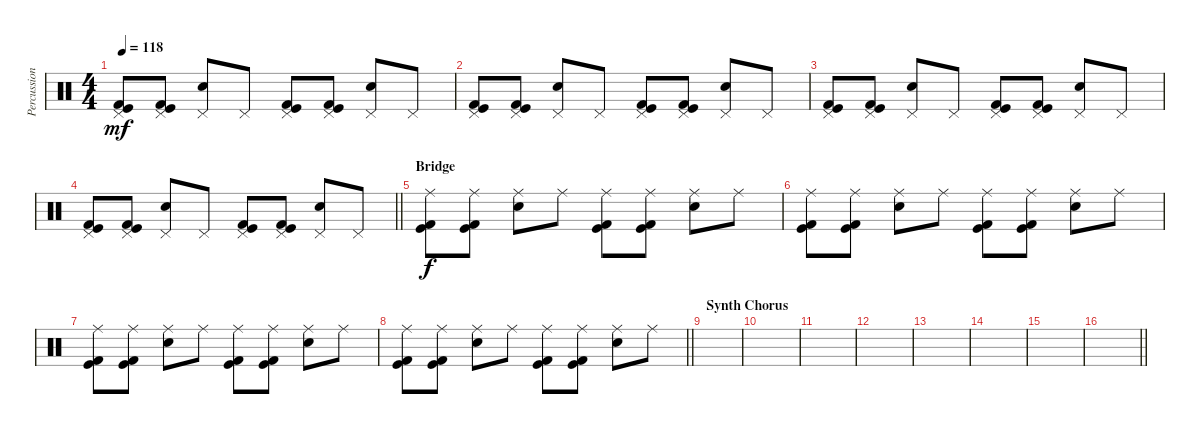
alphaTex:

\track ("Percussion" "Percussion") {instrument percussion}
\staff {score}
\articulation defaults
\ts (4 4)
\tempo 118
\clef neutral
\ks c
("Pedal Hi-Hat (hit)" "Kick (hit) 2" "Kick (hit)").8{dy mf} ("Pedal Hi-Hat (hit)" "Kick (hit) 2" "Kick (hit)").8 ("Pedal Hi-Hat (hit)" "Electric Snare (hit)").8 "Pedal Hi-Hat (hit)".8 ("Pedal Hi-Hat (hit)" "Kick (hit) 2" "Kick (hit)").8 ("Pedal Hi-Hat (hit)" "Kick (hit) 2" "Kick (hit)").8 ("Pedal Hi-Hat (hit)" "Electric Snare (hit)").8 "Pedal Hi-Hat (hit)".8 |
("Pedal Hi-Hat (hit)" "Kick (hit) 2" "Kick (hit)").8 ("Pedal Hi-Hat (hit)" "Kick (hit) 2" "Kick (hit)").8 ("Pedal Hi-Hat (hit)" "Electric Snare (hit)").8 "Pedal Hi-Hat (hit)".8 ("Pedal Hi-Hat (hit)" "Kick (hit) 2" "Kick (hit)").8 ("Pedal Hi-Hat (hit)" "Kick (hit) 2" "Kick (hit)").8 ("Pedal Hi-Hat (hit)" "Electric Snare (hit)").8 "Pedal Hi-Hat (hit)".8 |
("Pedal Hi-Hat (hit)" "Kick (hit) 2" "Kick (hit)").8 ("Pedal Hi-Hat (hit)" "Kick (hit) 2" "Kick (hit)").8 ("Pedal Hi-Hat (hit)" "Electric Snare (hit)").8 "Pedal Hi-Hat (hit)".8 ("Pedal Hi-Hat (hit)" "Kick (hit) 2" "Kick (hit)").8 ("Pedal Hi-Hat (hit)" "Kick (hit) 2" "Kick (hit)").8 ("Pedal Hi-Hat (hit)" "Electric Snare (hit)").8 "Pedal Hi-Hat (hit)".8 |
\barLineRight lightlight
("Pedal Hi-Hat (hit)" "Kick (hit) 2" "Kick (hit)").8 ("Pedal Hi-Hat (hit)" "Kick (hit) 2" "Kick (hit)").8 ("Pedal Hi-Hat (hit)" "Electric Snare (hit)").8 "Pedal Hi-Hat (hit)".8 ("Pedal Hi-Hat (hit)" "Kick (hit) 2" "Kick (hit)").8 ("Pedal Hi-Hat (hit)" "Kick (hit) 2" "Kick (hit)").8 ("Pedal Hi-Hat (hit)" "Electric Snare (hit)").8 "Pedal Hi-Hat (hit)".8 |
\section ("" "Bridge")
("Ride (middle)" "Kick (hit) 2" "Kick (hit)").8{dy f} ("Ride (middle)" "Kick (hit) 2" "Kick (hit)").8 ("Ride (middle)" "Electric Snare (hit)").8 "Ride (middle)".8 ("Ride (middle)" "Kick (hit) 2" "Kick (hit)").8 ("Ride (middle)" "Kick (hit) 2" "Kick (hit)").8 ("Ride (middle)" "Electric Snare (hit)").8 "Ride (middle)".8 |
("Ride (middle)" "Kick (hit) 2" "Kick (hit)").8 ("Ride (middle)" "Kick (hit) 2" "Kick (hit)").8 ("Ride (middle)" "Electric Snare (hit)").8 "Ride (middle)".8 ("Ride (middle)" "Kick (hit) 2" "Kick (hit)").8 ("Ride (middle)" "Kick (hit) 2" "Kick (hit)").8 ("Ride (middle)" "Electric Snare (hit)").8 "Ride (middle)".8 |
("Ride (middle)" "Kick (hit) 2" "Kick (hit)").8 ("Ride (middle)" "Kick (hit) 2" "Kick (hit)").8 ("Ride (middle)" "Electric Snare (hit)").8 "Ride (middle)".8 ("Ride (middle)" "Kick (hit) 2" "Kick (hit)").8 ("Ride (middle)" "Kick (hit) 2" "Kick (hit)").8 ("Ride (middle)" "Electric Snare (hit)").8 "Ride (middle)".8 |
\barLineRight lightlight
("Ride (middle)" "Kick (hit) 2" "Kick (hit)").8 ("Ride (middle)" "Kick (hit) 2" "Kick (hit)").8 ("Ride (middle)" "Electric Snare (hit)").8 "Ride (middle)".8 ("Ride (middle)" "Kick (hit) 2" "Kick (hit)").8 ("Ride (middle)" "Kick (hit) 2" "Kick (hit)").8 ("Ride (middle)" "Electric Snare (hit)").8 "Ride (middle)".8 |
\section ("" "Synth Chorus")
|
|
|
|
|
|
|
\barLineRight lightlight
